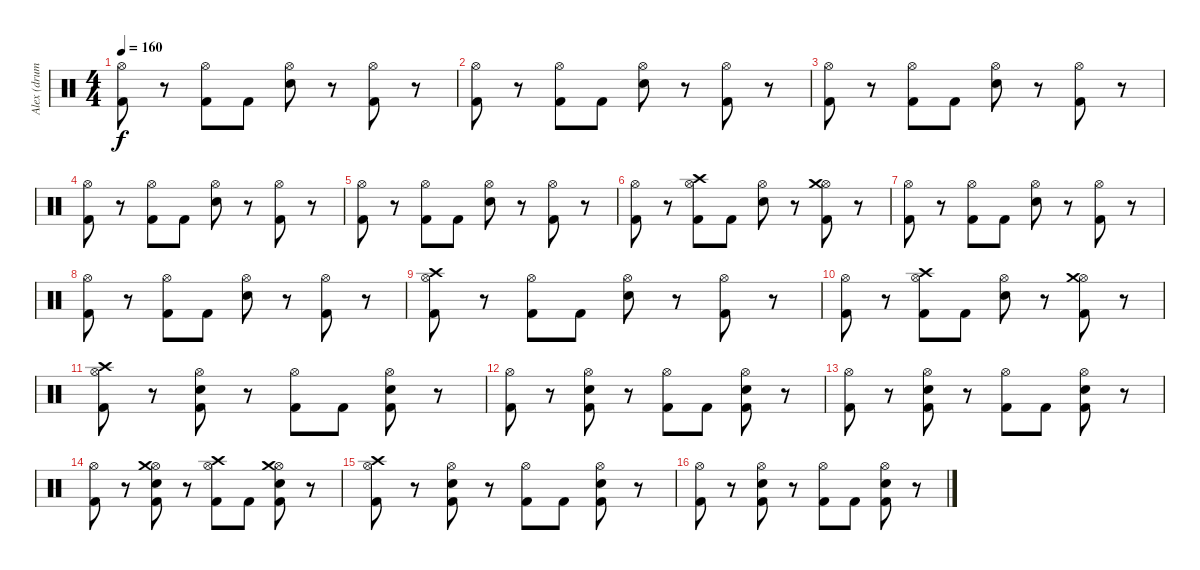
\track ("Alex (drums)" "Alex (drum") {instrument percussion}
\staff {score}
\articulation defaults
\ts (4 4)
\tempo 160
\clef neutral
\ks c
("Hi-Hat (open)" "Kick (hit) 2").8{dy f} r.8 ("Hi-Hat (open)" "Kick (hit) 2").8 "Kick (hit) 2".8 ("Hi-Hat (open)" "Snare (hit) 2").8 r.8 ("Hi-Hat (open)" "Kick (hit) 2").8 r.8 |
("Hi-Hat (open)" "Kick (hit) 2").8 r.8 ("Hi-Hat (open)" "Kick (hit) 2").8 "Kick (hit) 2".8 ("Hi-Hat (open)" "Snare (hit) 2").8 r.8 ("Hi-Hat (open)" "Kick (hit) 2").8 r.8 |
("Hi-Hat (open)" "Kick (hit) 2").8 r.8 ("Hi-Hat (open)" "Kick (hit) 2").8 "Kick (hit) 2".8 ("Hi-Hat (open)" "Snare (hit) 2").8 r.8 ("Hi-Hat (open)" "Kick (hit) 2").8 r.8 |
("Hi-Hat (open)" "Kick (hit) 2").8 r.8 ("Hi-Hat (open)" "Kick (hit) 2").8 "Kick (hit) 2".8 ("Hi-Hat (open)" "Snare (hit) 2").8 r.8 ("Hi-Hat (open)" "Kick (hit) 2").8 r.8 |
("Hi-Hat (open)" "Kick (hit) 2").8 r.8 ("Hi-Hat (open)" "Kick (hit) 2").8 "Kick (hit) 2".8 ("Hi-Hat (open)" "Snare (hit) 2").8 r.8 ("Hi-Hat (open)" "Kick (hit) 2").8 r.8 |
("Hi-Hat (open)" "Kick (hit) 2").8 r.8 ("Hi-Hat (open)" "Kick (hit) 2" "Crash high (hit)").8 "Kick (hit) 2".8 ("Hi-Hat (open)" "Snare (hit) 2").8 r.8 ("Hi-Hat (open)" "Kick (hit) 2" "Crash medium (hit)").8 r.8 |
("Hi-Hat (open)" "Kick (hit) 2").8 r.8 ("Hi-Hat (open)" "Kick (hit) 2").8 "Kick (hit) 2".8 ("Hi-Hat (open)" "Snare (hit) 2").8 r.8 ("Hi-Hat (open)" "Kick (hit) 2").8 r.8 |
("Hi-Hat (open)" "Kick (hit) 2").8 r.8 ("Hi-Hat (open)" "Kick (hit) 2").8 "Kick (hit) 2".8 ("Hi-Hat (open)" "Snare (hit) 2").8 r.8 ("Hi-Hat (open)" "Kick (hit) 2").8 r.8 |
("Hi-Hat (open)" "Kick (hit) 2" "Crash high (hit)").8 r.8 ("Hi-Hat (open)" "Kick (hit) 2").8 "Kick (hit) 2".8 ("Hi-Hat (open)" "Snare (hit) 2").8 r.8 ("Hi-Hat (open)" "Kick (hit) 2").8 r.8 |
("Hi-Hat (open)" "Kick (hit) 2").8 r.8 ("Hi-Hat (open)" "Kick (hit) 2" "Crash high (hit)").8 "Kick (hit) 2".8 ("Hi-Hat (open)" "Snare (hit) 2").8 r.8 ("Hi-Hat (open)" "Kick (hit) 2" "Crash medium (hit)").8 r.8 |
("Hi-Hat (open)" "Kick (hit) 2" "Crash high (hit)").8 r.8 ("Hi-Hat (open)" "Snare (hit) 2" "Kick (hit) 2").8 r.8 ("Hi-Hat (open)" "Kick (hit) 2").8 "Kick (hit) 2".8 ("Hi-Hat (open)" "Snare (hit) 2" "Kick (hit) 2").8 r.8 |
("Hi-Hat (open)" "Kick (hit) 2").8 r.8 ("Hi-Hat (open)" "Snare (hit) 2" "Kick (hit) 2").8 r.8 ("Hi-Hat (open)" "Kick (hit) 2").8 "Kick (hit) 2".8 ("Hi-Hat (open)" "Snare (hit) 2" "Kick (hit) 2").8 r.8 |
("Hi-Hat (open)" "Kick (hit) 2").8 r.8 ("Hi-Hat (open)" "Snare (hit) 2" "Kick (hit) 2").8 r.8 ("Hi-Hat (open)" "Kick (hit) 2").8 "Kick (hit) 2".8 ("Hi-Hat (open)" "Snare (hit) 2" "Kick (hit) 2").8 r.8 |
("Hi-Hat (open)" "Kick (hit) 2").8 r.8 ("Hi-Hat (open)" "Snare (hit) 2" "Kick (hit) 2" "Crash medium (hit)").8 r.8 ("Hi-Hat (open)" "Kick (hit) 2" "Crash high (hit)").8 "Kick (hit) 2".8 ("Hi-Hat (open)" "Snare (hit) 2" "Kick (hit) 2" "Crash medium (hit)").8 r.8 |
("Hi-Hat (open)" "Kick (hit) 2" "Crash high (hit)").8 r.8 ("Hi-Hat (open)" "Snare (hit) 2" "Kick (hit) 2").8 r.8 ("Hi-Hat (open)" "Kick (hit) 2").8 "Kick (hit) 2".8 ("Hi-Hat (open)" "Snare (hit) 2" "Kick (hit) 2").8 r.8 |
("Hi-Hat (open)" "Kick (hit) 2").8 r.8 ("Hi-Hat (open)" "Snare (hit) 2" "Kick (hit) 2").8 r.8 ("Hi-Hat (open)" "Kick (hit) 2").8 "Kick (hit) 2".8 ("Hi-Hat (open)" "Snare (hit) 2" "Kick (hit) 2").8 r.8
